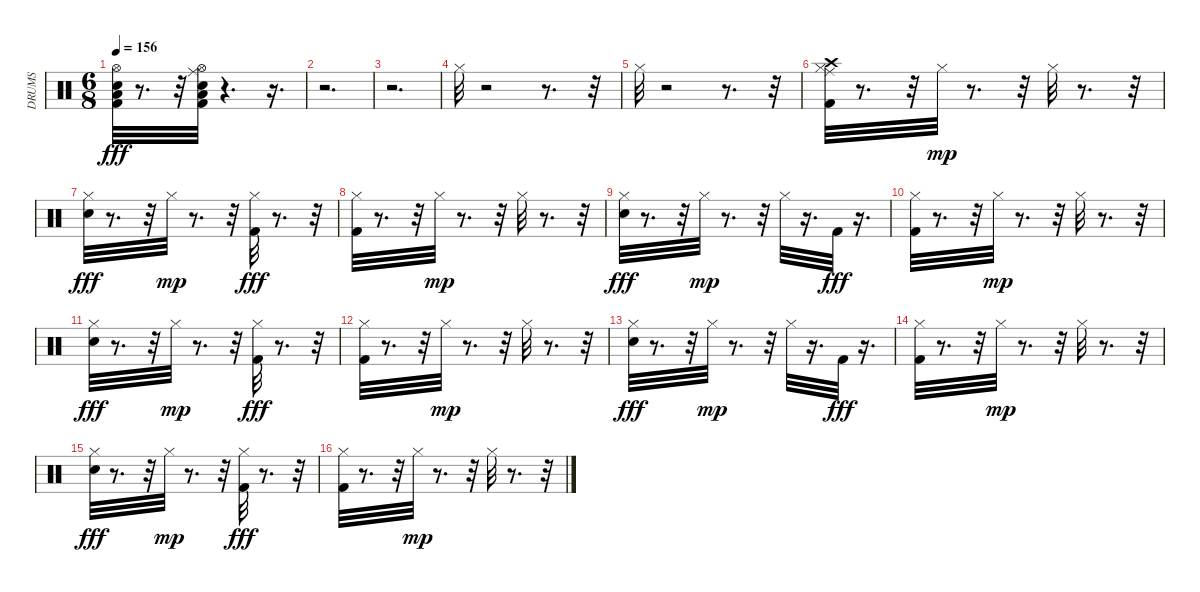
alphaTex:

\track ("DRUMS" "DRUMS") {instrument percussion}
\staff {score}
\articulation defaults
\ts (6 8)
\tempo 156
\clef neutral
\ks c
("Low Tom (hit)" "Hi-Hat (open)" "Snare (hit) 2" "Kick (hit) 2").32{dy fff} r.8{d} r.32 ("Low Floor Tom (hit)" "Ride (middle)" "Hi-Hat (open)" "Snare (hit) 2" "Kick (hit) 2").32 r.4{d} r.16{d} |
r.2{d} |
r.2{d} |
"Hi-Hat (closed)".32 r.2 r.8{d} r.32 |
"Hi-Hat (closed)".32 r.2 r.8{d} r.32 |
("Ride (middle)" "Crash high (hit)" "Hi-Hat (closed)" "Kick (hit) 2").32 r.8{d} r.32 "Hi-Hat (closed)".32{dy mp} r.8{d} r.32 "Hi-Hat (closed)".32 r.8{d} r.32 |
("Hi-Hat (closed)" "Snare (hit) 2").32{dy fff} r.8{d} r.32 "Hi-Hat (closed)".32{dy mp} r.8{d} r.32 ("Hi-Hat (closed)" "Kick (hit) 2").32{dy fff} r.8{d} r.32 |
("Hi-Hat (closed)" "Kick (hit) 2").32 r.8{d} r.32 "Hi-Hat (closed)".32{dy mp} r.8{d} r.32 "Hi-Hat (closed)".32 r.8{d} r.32 |
("Hi-Hat (closed)" "Snare (hit) 2").32{dy fff} r.8{d} r.32 "Hi-Hat (closed)".32{dy mp} r.8{d} r.32 "Hi-Hat (closed)".32 r.16{d} "Kick (hit) 2".32{dy fff} r.16{d} |
("Hi-Hat (closed)" "Kick (hit) 2").32 r.8{d} r.32 "Hi-Hat (closed)".32{dy mp} r.8{d} r.32 "Hi-Hat (closed)".32 r.8{d} r.32 |
("Hi-Hat (closed)" "Snare (hit) 2").32{dy fff} r.8{d} r.32 "Hi-Hat (closed)".32{dy mp} r.8{d} r.32 ("Hi-Hat (closed)" "Kick (hit) 2").32{dy fff} r.8{d} r.32 |
("Hi-Hat (closed)" "Kick (hit) 2").32 r.8{d} r.32 "Hi-Hat (closed)".32{dy mp} r.8{d} r.32 "Hi-Hat (closed)".32 r.8{d} r.32 |
("Hi-Hat (closed)" "Snare (hit) 2").32{dy fff} r.8{d} r.32 "Hi-Hat (closed)".32{dy mp} r.8{d} r.32 "Hi-Hat (closed)".32 r.16{d} "Kick (hit) 2".32{dy fff} r.16{d} |
("Hi-Hat (closed)" "Kick (hit) 2").32 r.8{d} r.32 "Hi-Hat (closed)".32{dy mp} r.8{d} r.32 "Hi-Hat (closed)".32 r.8{d} r.32 |
("Hi-Hat (closed)" "Snare (hit) 2").32{dy fff} r.8{d} r.32 "Hi-Hat (closed)".32{dy mp} r.8{d} r.32 ("Hi-Hat (closed)" "Kick (hit) 2").32{dy fff} r.8{d} r.32 |
("Hi-Hat (closed)" "Kick (hit) 2").32 r.8{d} r.32 "Hi-Hat (closed)".32{dy mp} r.8{d} r.32 "Hi-Hat (closed)".32 r.8{d} r.32
